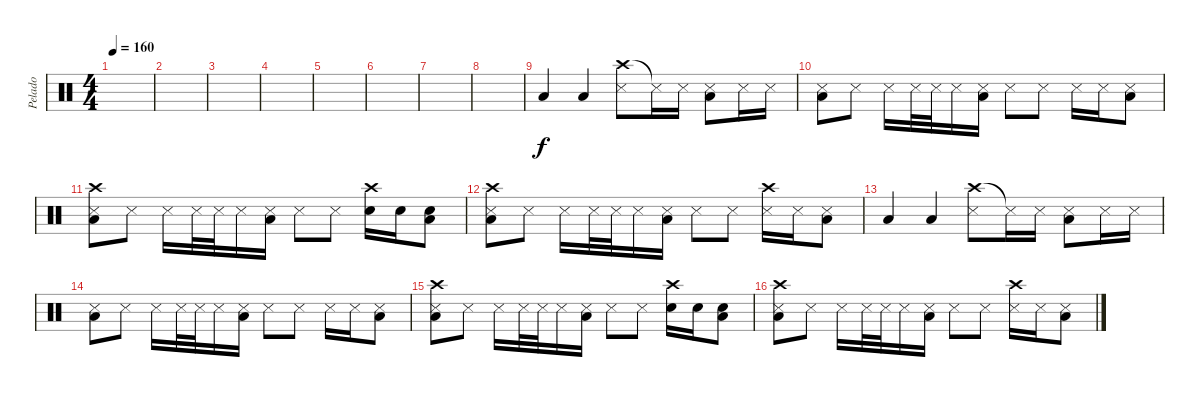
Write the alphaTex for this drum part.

\track ("Pelado" "Pelado") {instrument percussion}
\staff {score}
\articulation defaults
\ts (4 4)
\tempo 160
\clef neutral
\ks c
|
|
|
|
|
|
|
|
"Low Tom (hit)".4 "Low Tom (hit)".4 ("Crash high (hit)" "Snare (side stick) 3").8 "Snare (side stick) 3"{t}.16 "Snare (side stick) 3".16 ("Snare (side stick) 3" "Low Tom (hit)").8 "Snare (side stick) 3".16 "Snare (side stick) 3".16 |
("Snare (side stick) 3" "Low Tom (hit)").8 "Snare (side stick) 3".8 "Snare (side stick) 3".16 "Snare (side stick) 3".32 "Snare (side stick) 3".32 "Snare (side stick) 3".16 ("Snare (side stick) 3" "Low Tom (hit)").16 "Snare (side stick) 3".8 "Snare (side stick) 3".8 "Snare (side stick) 3".16 "Snare (side stick) 3".16 ("Snare (side stick) 3" "Low Tom (hit)").8 |
("Crash high (hit)" "Snare (side stick) 3" "Low Tom (hit)").8 "Snare (side stick) 3".8 "Snare (side stick) 3".16 "Snare (side stick) 3".32 "Snare (side stick) 3".32 "Snare (side stick) 3".16 ("Snare (side stick) 3" "Low Tom (hit)").16 "Snare (side stick) 3".8 "Snare (side stick) 3".8 ("Crash high (hit)" "Snare (hit) 2").16 "Snare (hit) 2".16 ("Snare (hit) 2" "Low Tom (hit)").8 |
("Crash high (hit)" "Snare (side stick) 3" "Low Tom (hit)").8 "Snare (side stick) 3".8 "Snare (side stick) 3".16 "Snare (side stick) 3".32 "Snare (side stick) 3".32 "Snare (side stick) 3".16 ("Snare (side stick) 3" "Low Tom (hit)").16 "Snare (side stick) 3".8 "Snare (side stick) 3".8 ("Crash high (hit)" "Snare (side stick) 3").16 "Snare (side stick) 3".16 ("Snare (side stick) 3" "Low Tom (hit)").8 |
"Low Tom (hit)".4 "Low Tom (hit)".4 ("Crash high (hit)" "Snare (side stick) 3").8 "Snare (side stick) 3"{t}.16 "Snare (side stick) 3".16 ("Snare (side stick) 3" "Low Tom (hit)").8 "Snare (side stick) 3".16 "Snare (side stick) 3".16 |
("Snare (side stick) 3" "Low Tom (hit)").8 "Snare (side stick) 3".8 "Snare (side stick) 3".16 "Snare (side stick) 3".32 "Snare (side stick) 3".32 "Snare (side stick) 3".16 ("Snare (side stick) 3" "Low Tom (hit)").16 "Snare (side stick) 3".8 "Snare (side stick) 3".8 "Snare (side stick) 3".16 "Snare (side stick) 3".16 ("Snare (side stick) 3" "Low Tom (hit)").8 |
("Crash high (hit)" "Snare (side stick) 3" "Low Tom (hit)").8 "Snare (side stick) 3".8 "Snare (side stick) 3".16 "Snare (side stick) 3".32 "Snare (side stick) 3".32 "Snare (side stick) 3".16 ("Snare (side stick) 3" "Low Tom (hit)").16 "Snare (side stick) 3".8 "Snare (side stick) 3".8 ("Crash high (hit)" "Snare (hit) 2").16 "Snare (hit) 2".16 ("Snare (hit) 2" "Low Tom (hit)").8 |
("Crash high (hit)" "Snare (side stick) 3" "Low Tom (hit)").8 "Snare (side stick) 3".8 "Snare (side stick) 3".16 "Snare (side stick) 3".32 "Snare (side stick) 3".32 "Snare (side stick) 3".16 ("Snare (side stick) 3" "Low Tom (hit)").16 "Snare (side stick) 3".8 "Snare (side stick) 3".8 ("Crash high (hit)" "Snare (side stick) 3").16 "Snare (side stick) 3".16 ("Snare (side stick) 3" "Low Tom (hit)").8
